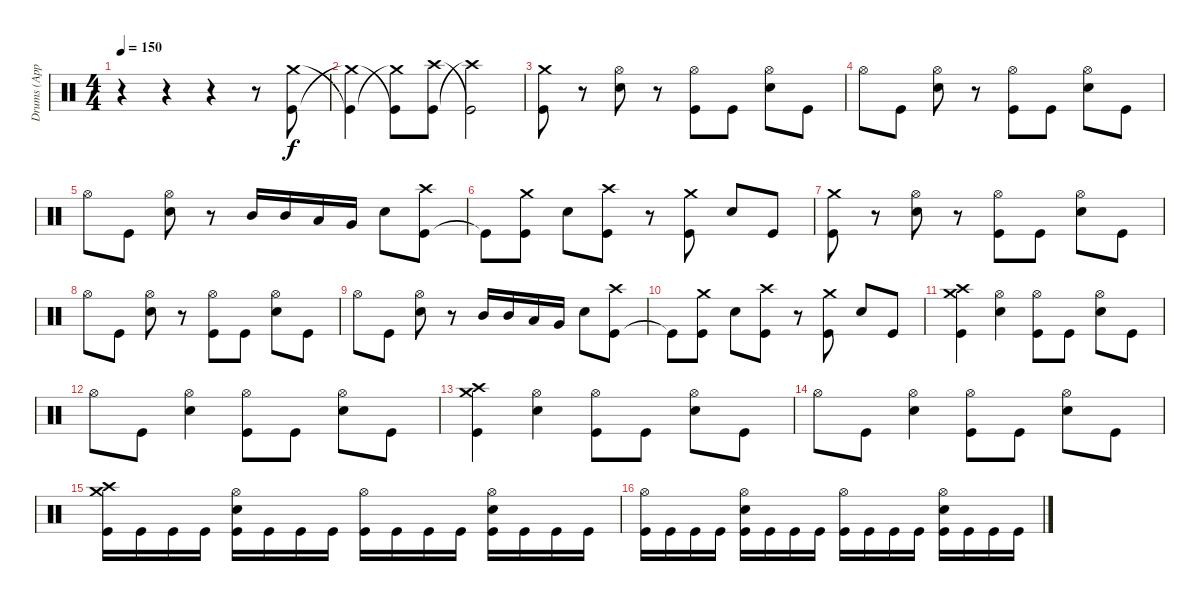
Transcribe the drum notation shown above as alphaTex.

\track ("Drums (Appelhans/Durst)" "Drums (App") {instrument percussion}
\staff {score}
\articulation defaults
\ts (4 4)
\tempo 150
\clef neutral
\ks c
r.4{dy f} r.4 r.4 r.8 ("Kick (hit)" "Crash medium (hit)").8 |
("Crash medium (hit)"{t} "Kick (hit)"{t}).4 ("Kick (hit)"{t} "Crash medium (hit)"{t}).8 ("Crash high (hit)" "Kick (hit)").8 ("Kick (hit)"{t} "Crash high (hit)"{t}).2 |
("Kick (hit)" "Crash medium (hit)").8 r.8 ("Snare (hit) 2" "Hi-Hat (open)").8 r.8 ("Kick (hit)" "Hi-Hat (open)").8 "Kick (hit)".8 ("Snare (hit) 2" "Hi-Hat (open)").8 "Kick (hit)".8 |
"Hi-Hat (open)".8 "Kick (hit)".8 ("Snare (hit) 2" "Hi-Hat (open)").8 r.8 ("Kick (hit)" "Hi-Hat (open)").8 "Kick (hit)".8 ("Snare (hit) 2" "Hi-Hat (open)").8 "Kick (hit)".8 |
"Hi-Hat (open)".8 "Kick (hit)".8 ("Snare (hit) 2" "Hi-Hat (open)").8 r.8 "Mid Tom (hit)".16 "Mid Tom (hit)".16 "Low Tom (hit)".16 "Very Low Tom (hit)".16 "Snare (hit) 2".8 ("Kick (hit)" "Crash high (hit)").8 |
"Kick (hit)"{t}.8 ("Kick (hit)" "Crash medium (hit)").8 "Snare (hit) 2".8 ("Kick (hit)" "Crash high (hit)").8 r.8 ("Kick (hit)" "Crash medium (hit)").8 "Snare (hit) 2".8 "Kick (hit)".8 |
("Kick (hit)" "Crash medium (hit)").8 r.8 ("Snare (hit) 2" "Hi-Hat (open)").8 r.8 ("Kick (hit)" "Hi-Hat (open)").8 "Kick (hit)".8 ("Snare (hit) 2" "Hi-Hat (open)").8 "Kick (hit)".8 |
"Hi-Hat (open)".8 "Kick (hit)".8 ("Snare (hit) 2" "Hi-Hat (open)").8 r.8 ("Kick (hit)" "Hi-Hat (open)").8 "Kick (hit)".8 ("Snare (hit) 2" "Hi-Hat (open)").8 "Kick (hit)".8 |
"Hi-Hat (open)".8 "Kick (hit)".8 ("Snare (hit) 2" "Hi-Hat (open)").8 r.8 "Mid Tom (hit)".16 "Mid Tom (hit)".16 "Low Tom (hit)".16 "Very Low Tom (hit)".16 "Snare (hit) 2".8 ("Kick (hit)" "Crash high (hit)").8 |
"Kick (hit)"{t}.8 ("Kick (hit)" "Crash medium (hit)").8 "Snare (hit) 2".8 ("Kick (hit)" "Crash high (hit)").8 r.8 ("Kick (hit)" "Crash medium (hit)").8 "Snare (hit) 2".8 "Kick (hit)".8 |
("Kick (hit)" "Crash medium (hit)" "Crash high (hit)").4 ("Snare (hit) 2" "Hi-Hat (open)").4 ("Kick (hit)" "Hi-Hat (open)").8 "Kick (hit)".8 ("Snare (hit) 2" "Hi-Hat (open)").8 "Kick (hit)".8 |
"Hi-Hat (open)".8 "Kick (hit)".8 ("Snare (hit) 2" "Hi-Hat (open)").4 ("Kick (hit)" "Hi-Hat (open)").8 "Kick (hit)".8 ("Snare (hit) 2" "Hi-Hat (open)").8 "Kick (hit)".8 |
("Kick (hit)" "Crash medium (hit)" "Crash high (hit)").4 ("Snare (hit) 2" "Hi-Hat (open)").4 ("Kick (hit)" "Hi-Hat (open)").8 "Kick (hit)".8 ("Snare (hit) 2" "Hi-Hat (open)").8 "Kick (hit)".8 |
"Hi-Hat (open)".8 "Kick (hit)".8 ("Snare (hit) 2" "Hi-Hat (open)").4 ("Kick (hit)" "Hi-Hat (open)").8 "Kick (hit)".8 ("Snare (hit) 2" "Hi-Hat (open)").8 "Kick (hit)".8 |
("Kick (hit)" "Crash medium (hit)" "Crash high (hit)").16 "Kick (hit)".16 "Kick (hit)".16 "Kick (hit)".16 ("Kick (hit)" "Hi-Hat (open)" "Snare (hit) 2").16 "Kick (hit)".16 "Kick (hit)".16 "Kick (hit)".16 ("Kick (hit)" "Hi-Hat (open)").16 "Kick (hit)".16 "Kick (hit)".16 "Kick (hit)".16 ("Kick (hit)" "Hi-Hat (open)" "Snare (hit) 2").16 "Kick (hit)".16 "Kick (hit)".16 "Kick (hit)".16 |
("Kick (hit)" "Hi-Hat (open)").16 "Kick (hit)".16 "Kick (hit)".16 "Kick (hit)".16 ("Kick (hit)" "Hi-Hat (open)" "Snare (hit) 2").16 "Kick (hit)".16 "Kick (hit)".16 "Kick (hit)".16 ("Kick (hit)" "Hi-Hat (open)").16 "Kick (hit)".16 "Kick (hit)".16 "Kick (hit)".16 ("Kick (hit)" "Hi-Hat (open)" "Snare (hit) 2").16 "Kick (hit)".16 "Kick (hit)".16 "Kick (hit)".16
